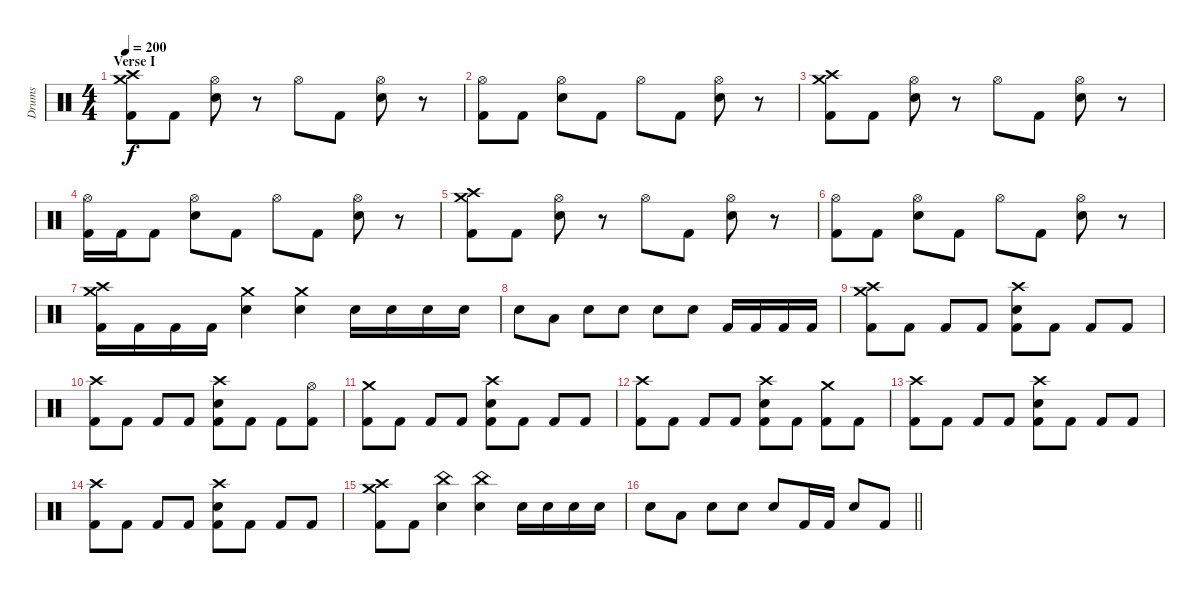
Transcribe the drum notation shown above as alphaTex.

\track ("Drums" "Drums") {instrument percussion}
\staff {score}
\articulation defaults
\ts (4 4)
\section ("" "Verse I")
\tempo 200
\clef neutral
\ks c
("Crash medium (hit)" "Crash high (hit)" "Kick (hit) 2").8{dy f} "Kick (hit) 2".8 ("Hi-Hat (open)" "Electric Snare (hit)").8 r.8 "Hi-Hat (open)".8 "Kick (hit) 2".8 ("Hi-Hat (open)" "Electric Snare (hit)").8 r.8 |
("Hi-Hat (open)" "Kick (hit) 2").8 "Kick (hit) 2".8 ("Hi-Hat (open)" "Electric Snare (hit)").8 "Kick (hit) 2".8 "Hi-Hat (open)".8 "Kick (hit) 2".8 ("Hi-Hat (open)" "Electric Snare (hit)").8 r.8 |
("Crash medium (hit)" "Crash high (hit)" "Kick (hit) 2").8 "Kick (hit) 2".8 ("Hi-Hat (open)" "Electric Snare (hit)").8 r.8 "Hi-Hat (open)".8 "Kick (hit) 2".8 ("Hi-Hat (open)" "Electric Snare (hit)").8 r.8 |
("Hi-Hat (open)" "Kick (hit) 2").16 "Kick (hit) 2".16 "Kick (hit) 2".8 ("Hi-Hat (open)" "Electric Snare (hit)").8 "Kick (hit) 2".8 "Hi-Hat (open)".8 "Kick (hit) 2".8 ("Hi-Hat (open)" "Electric Snare (hit)").8 r.8 |
("Crash medium (hit)" "Crash high (hit)" "Kick (hit) 2").8 "Kick (hit) 2".8 ("Hi-Hat (open)" "Electric Snare (hit)").8 r.8 "Hi-Hat (open)".8 "Kick (hit) 2".8 ("Hi-Hat (open)" "Electric Snare (hit)").8 r.8 |
("Hi-Hat (open)" "Kick (hit) 2").8 "Kick (hit) 2".8 ("Hi-Hat (open)" "Electric Snare (hit)").8 "Kick (hit) 2".8 "Hi-Hat (open)".8 "Kick (hit) 2".8 ("Hi-Hat (open)" "Electric Snare (hit)").8 r.8 |
("Crash high (hit)" "Crash medium (hit)" "Kick (hit) 2").16 "Kick (hit) 2".16 "Kick (hit) 2".16 "Kick (hit) 2".16 ("Crash medium (hit)" "Electric Snare (hit)").4 ("Crash medium (hit)" "Electric Snare (hit)").4 "Electric Snare (hit)".16 "Electric Snare (hit)".16 "Electric Snare (hit)".16 "Electric Snare (hit)".16 |
"Electric Snare (hit)".8 "Low Tom (hit)".8 "Electric Snare (hit)".8 "Electric Snare (hit)".8 "Electric Snare (hit)".8 "Electric Snare (hit)".8 "Kick (hit) 2".16 "Kick (hit) 2".16 "Kick (hit) 2".16 "Kick (hit) 2".16 |
("Crash high (hit)" "Crash medium (hit)" "Kick (hit) 2").8 "Kick (hit) 2".8 "Kick (hit) 2".8 "Kick (hit) 2".8 ("Crash high (hit)" "Electric Snare (hit)" "Kick (hit) 2").8 "Kick (hit) 2".8 "Kick (hit) 2".8 "Kick (hit) 2".8 |
("Crash high (hit)" "Kick (hit) 2").8 "Kick (hit) 2".8 "Kick (hit) 2".8 "Kick (hit) 2".8 ("Crash high (hit)" "Electric Snare (hit)" "Kick (hit) 2").8 "Kick (hit) 2".8 "Kick (hit) 2".8 ("Hi-Hat (open)" "Kick (hit) 2").8 |
("Crash medium (hit)" "Kick (hit) 2").8 "Kick (hit) 2".8 "Kick (hit) 2".8 "Kick (hit) 2".8 ("Crash high (hit)" "Electric Snare (hit)" "Kick (hit) 2").8 "Kick (hit) 2".8 "Kick (hit) 2".8 "Kick (hit) 2".8 |
("Crash high (hit)" "Kick (hit) 2").8 "Kick (hit) 2".8 "Kick (hit) 2".8 "Kick (hit) 2".8 ("Crash high (hit)" "Electric Snare (hit)" "Kick (hit) 2").8 "Kick (hit) 2".8 ("Crash medium (hit)" "Kick (hit) 2").8 "Kick (hit) 2".8 |
("Crash high (hit)" "Kick (hit) 2").8 "Kick (hit) 2".8 "Kick (hit) 2".8 "Kick (hit) 2".8 ("Crash high (hit)" "Electric Snare (hit)" "Kick (hit) 2").8 "Kick (hit) 2".8 "Kick (hit) 2".8 "Kick (hit) 2".8 |
("Crash high (hit)" "Kick (hit) 2").8 "Kick (hit) 2".8 "Kick (hit) 2".8 "Kick (hit) 2".8 ("Crash high (hit)" "Electric Snare (hit)" "Kick (hit) 2").8 "Kick (hit) 2".8 "Kick (hit) 2".8 "Kick (hit) 2".8 |
("Crash high (hit)" "Crash medium (hit)" "Kick (hit) 2").8 "Kick (hit) 2".8 ("China (hit)" "Electric Snare (hit)").4 ("China (hit)" "Electric Snare (hit)").4 "Electric Snare (hit)".16 "Electric Snare (hit)".16 "Electric Snare (hit)".16 "Electric Snare (hit)".16 |
\barLineRight lightlight "Electric Snare (hit)".8 "Low Tom (hit)".8 "Electric Snare (hit)".8 "Electric Snare (hit)".8 "Electric Snare (hit)".8 "Kick (hit) 2".16 "Kick (hit) 2".16 "Electric Snare (hit)".8 "Kick (hit) 2".8
